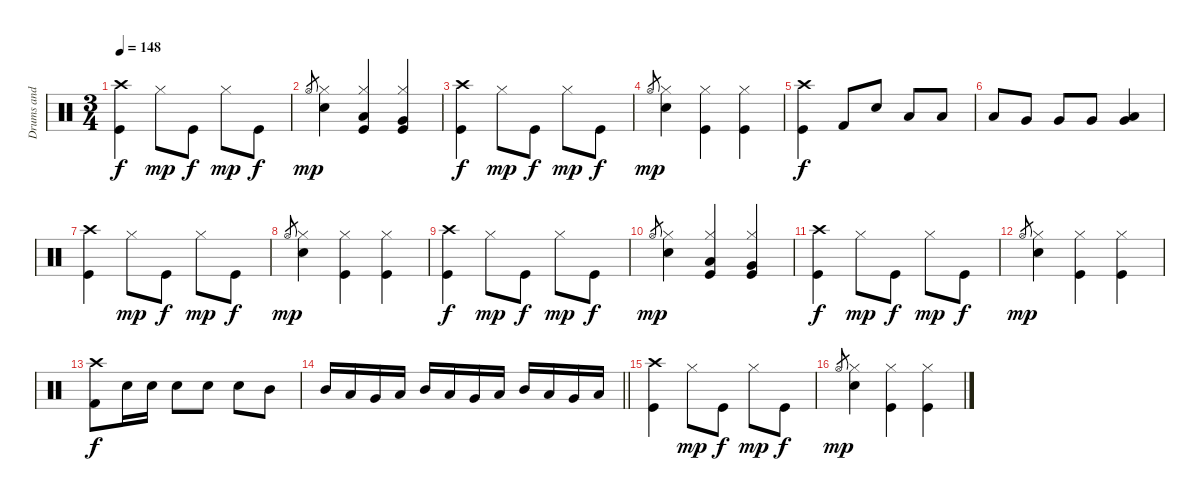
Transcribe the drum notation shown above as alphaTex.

\track ("Drums and percussion" "Drums and ") {instrument percussion}
\staff {score}
\articulation defaults
\ts (3 4)
\tempo 148
\clef neutral
\ks c
("Crash high (hit)" "Kick (hit)").4{dy f} "Hi-Hat (closed)".8{dy mp} "Kick (hit)".8{dy f} "Hi-Hat (closed)".8{dy mp} "Kick (hit)".8{dy f} |
"Hi-Hat (open)".8{gr dy mp} ("Hi-Hat (closed)" "Electric Snare (hit)").4 ("Hi-Hat (closed)" "Low Tom (hit)" "Kick (hit)").4 ("Hi-Hat (closed)" "Very Low Tom (hit)" "Kick (hit)").4 |
("Crash high (hit)" "Kick (hit)").4{dy f} "Hi-Hat (closed)".8{dy mp} "Kick (hit)".8{dy f} "Hi-Hat (closed)".8{dy mp} "Kick (hit)".8{dy f} |
"Hi-Hat (open)".8{gr dy mp} ("Hi-Hat (closed)" "Electric Snare (hit)").4 ("Hi-Hat (closed)" "Kick (hit)").4 ("Hi-Hat (closed)" "Kick (hit)").4 |
("Crash high (hit)" "Kick (hit)").4{dy f} "Kick (hit) 2".8 "Electric Snare (hit)".8 "Low Tom (hit)".8 "Low Tom (hit)".8 |
"Low Tom (hit)".8 "Very Low Tom (hit)".8 "Very Low Tom (hit)".8 "Very Low Tom (hit)".8 ("Very Low Tom (hit)" "Low Floor Tom (hit)").4 |
("Crash high (hit)" "Kick (hit)").4 "Hi-Hat (closed)".8{dy mp} "Kick (hit)".8{dy f} "Hi-Hat (closed)".8{dy mp} "Kick (hit)".8{dy f} |
"Hi-Hat (open)".8{gr dy mp} ("Hi-Hat (closed)" "Electric Snare (hit)").4 ("Hi-Hat (closed)" "Kick (hit)").4 ("Hi-Hat (closed)" "Kick (hit)").4 |
("Crash high (hit)" "Kick (hit)").4{dy f} "Hi-Hat (closed)".8{dy mp} "Kick (hit)".8{dy f} "Hi-Hat (closed)".8{dy mp} "Kick (hit)".8{dy f} |
"Hi-Hat (open)".8{gr dy mp} ("Hi-Hat (closed)" "Electric Snare (hit)").4 ("Hi-Hat (closed)" "Low Tom (hit)" "Kick (hit)").4 ("Hi-Hat (closed)" "Very Low Tom (hit)" "Kick (hit)").4 |
("Crash high (hit)" "Kick (hit)").4{dy f} "Hi-Hat (closed)".8{dy mp} "Kick (hit)".8{dy f} "Hi-Hat (closed)".8{dy mp} "Kick (hit)".8{dy f} |
"Hi-Hat (open)".8{gr dy mp} ("Hi-Hat (closed)" "Electric Snare (hit)").4 ("Hi-Hat (closed)" "Kick (hit)").4 ("Hi-Hat (closed)" "Kick (hit)").4 |
("Crash high (hit)" "Kick (hit) 2").8{dy f} "Electric Snare (hit)".16 "Electric Snare (hit)".16 "Electric Snare (hit)".8 "Electric Snare (hit)".8 "Electric Snare (hit)".8 "Mid Tom (hit)".8 |
\barLineRight lightlight "Mid Tom (hit)".16 "Low Tom (hit)".16 "Very Low Tom (hit)".16 "Low Floor Tom (hit)".16 "Mid Tom (hit)".16 "Low Tom (hit)".16 "Very Low Tom (hit)".16 "Low Floor Tom (hit)".16 "Mid Tom (hit)".16 "Low Tom (hit)".16 "Very Low Tom (hit)".16 "Low Floor Tom (hit)".16
|
("Crash high (hit)" "Kick (hit)").4 "Hi-Hat (closed)".8{dy mp} "Kick (hit)".8{dy f} "Hi-Hat (closed)".8{dy mp} "Kick (hit)".8{dy f} |
"Hi-Hat (open)".8{gr dy mp} ("Hi-Hat (closed)" "Electric Snare (hit)").4 ("Hi-Hat (closed)" "Kick (hit)").4 ("Hi-Hat (closed)" "Kick (hit)").4
